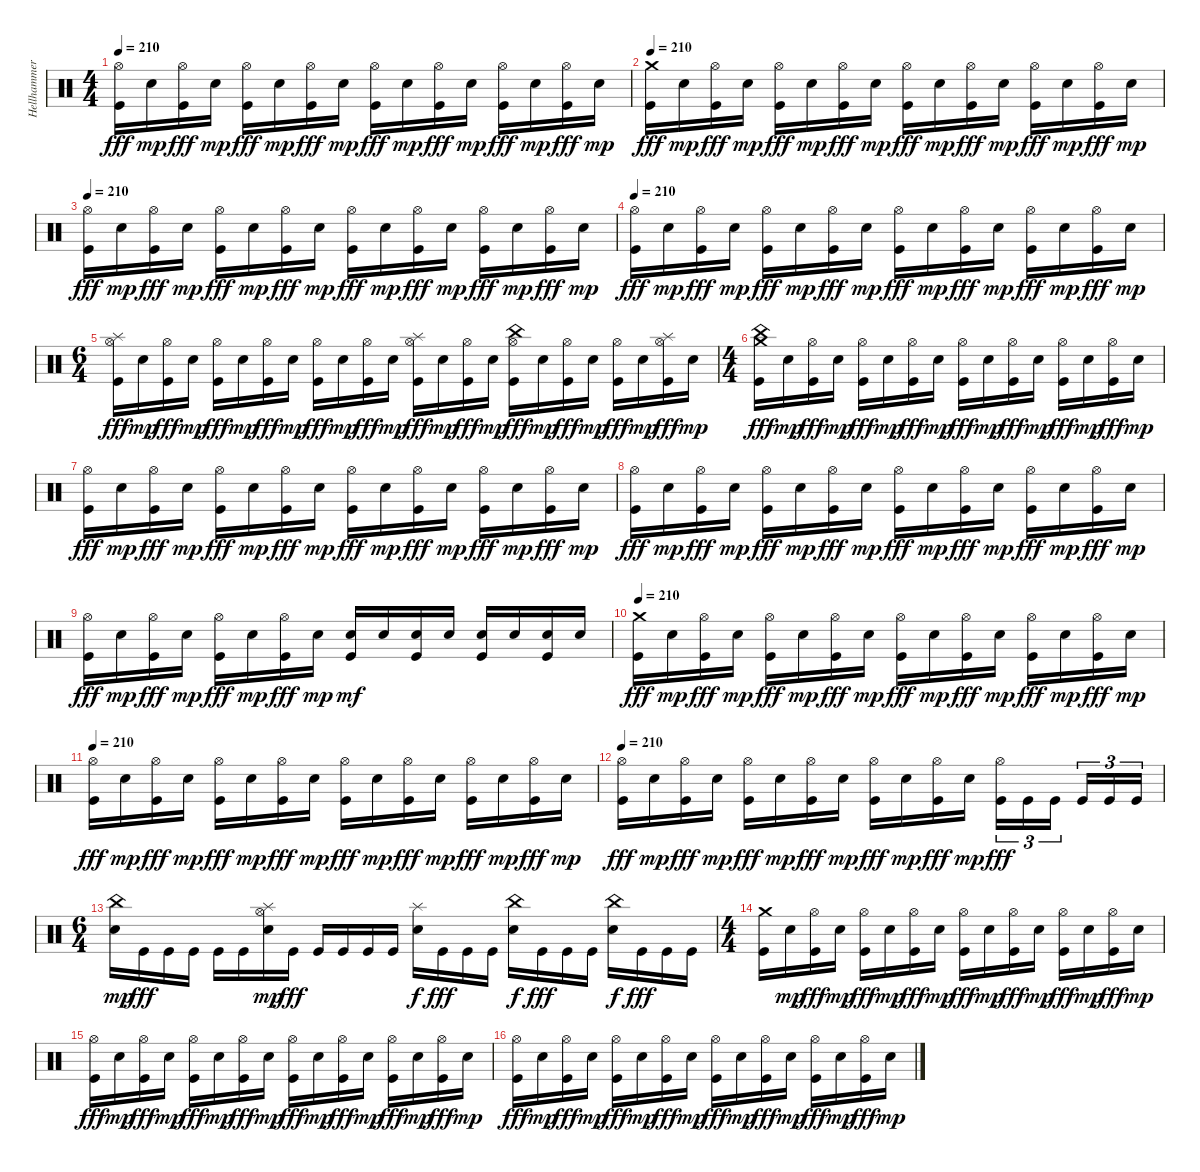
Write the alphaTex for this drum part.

\track ("Hellhammer" "Hellhammer") {instrument percussion}
\staff {score}
\articulation defaults
\ts (4 4)
\tempo 210
\clef neutral
\ks c
("Hi-Hat (open)" "Kick (hit)").16{dy fff} "Electric Snare (hit)".16{dy mp} ("Hi-Hat (open)" "Kick (hit)").16{dy fff} "Electric Snare (hit)".16{dy mp} ("Hi-Hat (open)" "Kick (hit)").16{dy fff} "Electric Snare (hit)".16{dy mp} ("Hi-Hat (open)" "Kick (hit)").16{dy fff} "Electric Snare (hit)".16{dy mp} ("Hi-Hat (open)" "Kick (hit)").16{dy fff} "Electric Snare (hit)".16{dy mp} ("Hi-Hat (open)" "Kick (hit)").16{dy fff} "Electric Snare (hit)".16{dy mp} ("Hi-Hat (open)" "Kick (hit)").16{dy fff} "Electric Snare (hit)".16{dy mp} ("Hi-Hat (open)" "Kick (hit)").16{dy fff} "Electric Snare (hit)".16{dy mp} |
\tempo 210
("Crash medium (hit)" "Kick (hit)").16{dy fff} "Electric Snare (hit)".16{dy mp} ("Hi-Hat (open)" "Kick (hit)").16{dy fff} "Electric Snare (hit)".16{dy mp} ("Hi-Hat (open)" "Kick (hit)").16{dy fff} "Electric Snare (hit)".16{dy mp} ("Hi-Hat (open)" "Kick (hit)").16{dy fff} "Electric Snare (hit)".16{dy mp} ("Hi-Hat (open)" "Kick (hit)").16{dy fff} "Electric Snare (hit)".16{dy mp} ("Hi-Hat (open)" "Kick (hit)").16{dy fff} "Electric Snare (hit)".16{dy mp} ("Hi-Hat (open)" "Kick (hit)").16{dy fff} "Electric Snare (hit)".16{dy mp} ("Hi-Hat (open)" "Kick (hit)").16{dy fff} "Electric Snare (hit)".16{dy mp} |
\tempo 210
("Hi-Hat (open)" "Kick (hit)").16{dy fff} "Electric Snare (hit)".16{dy mp} ("Hi-Hat (open)" "Kick (hit)").16{dy fff} "Electric Snare (hit)".16{dy mp} ("Hi-Hat (open)" "Kick (hit)").16{dy fff} "Electric Snare (hit)".16{dy mp} ("Hi-Hat (open)" "Kick (hit)").16{dy fff} "Electric Snare (hit)".16{dy mp} ("Hi-Hat (open)" "Kick (hit)").16{dy fff} "Electric Snare (hit)".16{dy mp} ("Hi-Hat (open)" "Kick (hit)").16{dy fff} "Electric Snare (hit)".16{dy mp} ("Hi-Hat (open)" "Kick (hit)").16{dy fff} "Electric Snare (hit)".16{dy mp} ("Hi-Hat (open)" "Kick (hit)").16{dy fff} "Electric Snare (hit)".16{dy mp} |
\tempo 210
("Hi-Hat (open)" "Kick (hit)").16{dy fff} "Electric Snare (hit)".16{dy mp} ("Hi-Hat (open)" "Kick (hit)").16{dy fff} "Electric Snare (hit)".16{dy mp} ("Hi-Hat (open)" "Kick (hit)").16{dy fff} "Electric Snare (hit)".16{dy mp} ("Hi-Hat (open)" "Kick (hit)").16{dy fff} "Electric Snare (hit)".16{dy mp} ("Hi-Hat (open)" "Kick (hit)").16{dy fff} "Electric Snare (hit)".16{dy mp} ("Hi-Hat (open)" "Kick (hit)").16{dy fff} "Electric Snare (hit)".16{dy mp} ("Hi-Hat (open)" "Kick (hit)").16{dy fff} "Electric Snare (hit)".16{dy mp} ("Hi-Hat (open)" "Kick (hit)").16{dy fff} "Electric Snare (hit)".16{dy mp} |
\ts (6 4)
("Splash (hit)" "Hi-Hat (open)" "Kick (hit)").16{dy fff} "Electric Snare (hit)".16{dy mp} ("Hi-Hat (open)" "Kick (hit)").16{dy fff} "Electric Snare (hit)".16{dy mp} ("Hi-Hat (open)" "Kick (hit)").16{dy fff} "Electric Snare (hit)".16{dy mp} ("Hi-Hat (open)" "Kick (hit)").16{dy fff} "Electric Snare (hit)".16{dy mp} ("Hi-Hat (open)" "Kick (hit)").16{dy fff} "Electric Snare (hit)".16{dy mp} ("Hi-Hat (open)" "Kick (hit)").16{dy fff} "Electric Snare (hit)".16{dy mp} ("Splash (hit)" "Hi-Hat (open)" "Kick (hit)").16{dy fff} "Electric Snare (hit)".16{dy mp} ("Hi-Hat (open)" "Kick (hit)").16{dy fff} "Electric Snare (hit)".16{dy mp} ("China (hit)" "Hi-Hat (open)" "Kick (hit)").16{dy fff} "Electric Snare (hit)".16{dy mp} ("Hi-Hat (open)" "Kick (hit)").16{dy fff} "Electric Snare (hit)".16{dy mp} ("Hi-Hat (open)" "Kick (hit)").16{dy fff} "Electric Snare (hit)".16{dy mp} ("Splash (hit)" "Hi-Hat (open)" "Kick (hit)").16{dy fff} "Electric Snare (hit)".16{dy mp} |
\ts (4 4)
("China (hit)" "Crash medium (hit)" "Kick (hit)").16{dy fff} "Electric Snare (hit)".16{dy mp} ("Hi-Hat (open)" "Kick (hit)").16{dy fff} "Electric Snare (hit)".16{dy mp} ("Hi-Hat (open)" "Kick (hit)").16{dy fff} "Electric Snare (hit)".16{dy mp} ("Hi-Hat (open)" "Kick (hit)").16{dy fff} "Electric Snare (hit)".16{dy mp} ("Hi-Hat (open)" "Kick (hit)").16{dy fff} "Electric Snare (hit)".16{dy mp} ("Hi-Hat (open)" "Kick (hit)").16{dy fff} "Electric Snare (hit)".16{dy mp} ("Hi-Hat (open)" "Kick (hit)").16{dy fff} "Electric Snare (hit)".16{dy mp} ("Hi-Hat (open)" "Kick (hit)").16{dy fff} "Electric Snare (hit)".16{dy mp} |
("Hi-Hat (open)" "Kick (hit)").16{dy fff} "Electric Snare (hit)".16{dy mp} ("Hi-Hat (open)" "Kick (hit)").16{dy fff} "Electric Snare (hit)".16{dy mp} ("Hi-Hat (open)" "Kick (hit)").16{dy fff} "Electric Snare (hit)".16{dy mp} ("Hi-Hat (open)" "Kick (hit)").16{dy fff} "Electric Snare (hit)".16{dy mp} ("Hi-Hat (open)" "Kick (hit)").16{dy fff} "Electric Snare (hit)".16{dy mp} ("Hi-Hat (open)" "Kick (hit)").16{dy fff} "Electric Snare (hit)".16{dy mp} ("Hi-Hat (open)" "Kick (hit)").16{dy fff} "Electric Snare (hit)".16{dy mp} ("Hi-Hat (open)" "Kick (hit)").16{dy fff} "Electric Snare (hit)".16{dy mp} |
("Hi-Hat (open)" "Kick (hit)").16{dy fff} "Electric Snare (hit)".16{dy mp} ("Hi-Hat (open)" "Kick (hit)").16{dy fff} "Electric Snare (hit)".16{dy mp} ("Hi-Hat (open)" "Kick (hit)").16{dy fff} "Electric Snare (hit)".16{dy mp} ("Hi-Hat (open)" "Kick (hit)").16{dy fff} "Electric Snare (hit)".16{dy mp} ("Hi-Hat (open)" "Kick (hit)").16{dy fff} "Electric Snare (hit)".16{dy mp} ("Hi-Hat (open)" "Kick (hit)").16{dy fff} "Electric Snare (hit)".16{dy mp} ("Hi-Hat (open)" "Kick (hit)").16{dy fff} "Electric Snare (hit)".16{dy mp} ("Hi-Hat (open)" "Kick (hit)").16{dy fff} "Electric Snare (hit)".16{dy mp} |
("Hi-Hat (open)" "Kick (hit)").16{dy fff} "Electric Snare (hit)".16{dy mp} ("Hi-Hat (open)" "Kick (hit)").16{dy fff} "Electric Snare (hit)".16{dy mp} ("Hi-Hat (open)" "Kick (hit)").16{dy fff} "Electric Snare (hit)".16{dy mp} ("Hi-Hat (open)" "Kick (hit)").16{dy fff} "Electric Snare (hit)".16{dy mp} ("Kick (hit)" "Electric Snare (hit)").16{dy mf} "Electric Snare (hit)".16 ("Kick (hit)" "Electric Snare (hit)").16 "Electric Snare (hit)".16 ("Kick (hit)" "Electric Snare (hit)").16 "Electric Snare (hit)".16 ("Kick (hit)" "Electric Snare (hit)").16 "Electric Snare (hit)".16 |
\tempo 210
("Crash medium (hit)" "Kick (hit)").16{dy fff} "Electric Snare (hit)".16{dy mp} ("Hi-Hat (open)" "Kick (hit)").16{dy fff} "Electric Snare (hit)".16{dy mp} ("Hi-Hat (open)" "Kick (hit)").16{dy fff} "Electric Snare (hit)".16{dy mp} ("Hi-Hat (open)" "Kick (hit)").16{dy fff} "Electric Snare (hit)".16{dy mp} ("Hi-Hat (open)" "Kick (hit)").16{dy fff} "Electric Snare (hit)".16{dy mp} ("Hi-Hat (open)" "Kick (hit)").16{dy fff} "Electric Snare (hit)".16{dy mp} ("Hi-Hat (open)" "Kick (hit)").16{dy fff} "Electric Snare (hit)".16{dy mp} ("Hi-Hat (open)" "Kick (hit)").16{dy fff} "Electric Snare (hit)".16{dy mp} |
\tempo 210
("Hi-Hat (open)" "Kick (hit)").16{dy fff} "Electric Snare (hit)".16{dy mp} ("Hi-Hat (open)" "Kick (hit)").16{dy fff} "Electric Snare (hit)".16{dy mp} ("Hi-Hat (open)" "Kick (hit)").16{dy fff} "Electric Snare (hit)".16{dy mp} ("Hi-Hat (open)" "Kick (hit)").16{dy fff} "Electric Snare (hit)".16{dy mp} ("Hi-Hat (open)" "Kick (hit)").16{dy fff} "Electric Snare (hit)".16{dy mp} ("Hi-Hat (open)" "Kick (hit)").16{dy fff} "Electric Snare (hit)".16{dy mp} ("Hi-Hat (open)" "Kick (hit)").16{dy fff} "Electric Snare (hit)".16{dy mp} ("Hi-Hat (open)" "Kick (hit)").16{dy fff} "Electric Snare (hit)".16{dy mp} |
\tempo 210
("Hi-Hat (open)" "Kick (hit)").16{dy fff} "Electric Snare (hit)".16{dy mp} ("Hi-Hat (open)" "Kick (hit)").16{dy fff} "Electric Snare (hit)".16{dy mp} ("Hi-Hat (open)" "Kick (hit)").16{dy fff} "Electric Snare (hit)".16{dy mp} ("Hi-Hat (open)" "Kick (hit)").16{dy fff} "Electric Snare (hit)".16{dy mp} ("Hi-Hat (open)" "Kick (hit)").16{dy fff} "Electric Snare (hit)".16{dy mp} ("Hi-Hat (open)" "Kick (hit)").16{dy fff} "Electric Snare (hit)".16{dy mp} ("Hi-Hat (open)" "Kick (hit)").16{tu (3 2) dy fff} "Kick (hit)".16{tu (3 2)} "Kick (hit)".16{tu (3 2)} "Kick (hit)".16{tu (3 2)} "Kick (hit)".16{tu (3 2)} "Kick (hit)".16{tu (3 2)} |
\ts (6 4)
("China (hit)" "Electric Snare (hit)").16{dy mp} "Kick (hit)".16{dy fff} "Kick (hit)".16 "Kick (hit)".16 "Kick (hit)".16 "Kick (hit)".16 ("Hi-Hat (open)" "Splash (hit)" "Electric Snare (hit)").16{dy mp} "Kick (hit)".16{dy fff} "Kick (hit)".16 "Kick (hit)".16 "Kick (hit)".16 "Kick (hit)".16 ("Splash (hit)" "Electric Snare (hit)").16{dy f} "Kick (hit)".16{dy fff} "Kick (hit)".16 "Kick (hit)".16 ("China (hit)" "Electric Snare (hit)").16{dy f} "Kick (hit)".16{dy fff} "Kick (hit)".16 "Kick (hit)".16 ("China (hit)" "Electric Snare (hit)").16{dy f} "Kick (hit)".16{dy fff} "Kick (hit)".16 "Kick (hit)".16 |
\ts (4 4)
("Crash medium (hit)" "Kick (hit)").16 "Electric Snare (hit)".16{dy mp} ("Hi-Hat (open)" "Kick (hit)").16{dy fff} "Electric Snare (hit)".16{dy mp} ("Hi-Hat (open)" "Kick (hit)").16{dy fff} "Electric Snare (hit)".16{dy mp} ("Hi-Hat (open)" "Kick (hit)").16{dy fff} "Electric Snare (hit)".16{dy mp} ("Hi-Hat (open)" "Kick (hit)").16{dy fff} "Electric Snare (hit)".16{dy mp} ("Hi-Hat (open)" "Kick (hit)").16{dy fff} "Electric Snare (hit)".16{dy mp} ("Hi-Hat (open)" "Kick (hit)").16{dy fff} "Electric Snare (hit)".16{dy mp} ("Hi-Hat (open)" "Kick (hit)").16{dy fff} "Electric Snare (hit)".16{dy mp} |
("Hi-Hat (open)" "Kick (hit)").16{dy fff} "Electric Snare (hit)".16{dy mp} ("Hi-Hat (open)" "Kick (hit)").16{dy fff} "Electric Snare (hit)".16{dy mp} ("Hi-Hat (open)" "Kick (hit)").16{dy fff} "Electric Snare (hit)".16{dy mp} ("Hi-Hat (open)" "Kick (hit)").16{dy fff} "Electric Snare (hit)".16{dy mp} ("Hi-Hat (open)" "Kick (hit)").16{dy fff} "Electric Snare (hit)".16{dy mp} ("Hi-Hat (open)" "Kick (hit)").16{dy fff} "Electric Snare (hit)".16{dy mp} ("Hi-Hat (open)" "Kick (hit)").16{dy fff} "Electric Snare (hit)".16{dy mp} ("Hi-Hat (open)" "Kick (hit)").16{dy fff} "Electric Snare (hit)".16{dy mp} |
("Hi-Hat (open)" "Kick (hit)").16{dy fff} "Electric Snare (hit)".16{dy mp} ("Hi-Hat (open)" "Kick (hit)").16{dy fff} "Electric Snare (hit)".16{dy mp} ("Hi-Hat (open)" "Kick (hit)").16{dy fff} "Electric Snare (hit)".16{dy mp} ("Hi-Hat (open)" "Kick (hit)").16{dy fff} "Electric Snare (hit)".16{dy mp} ("Hi-Hat (open)" "Kick (hit)").16{dy fff} "Electric Snare (hit)".16{dy mp} ("Hi-Hat (open)" "Kick (hit)").16{dy fff} "Electric Snare (hit)".16{dy mp} ("Hi-Hat (open)" "Kick (hit)").16{dy fff} "Electric Snare (hit)".16{dy mp} ("Hi-Hat (open)" "Kick (hit)").16{dy fff} "Electric Snare (hit)".16{dy mp}
